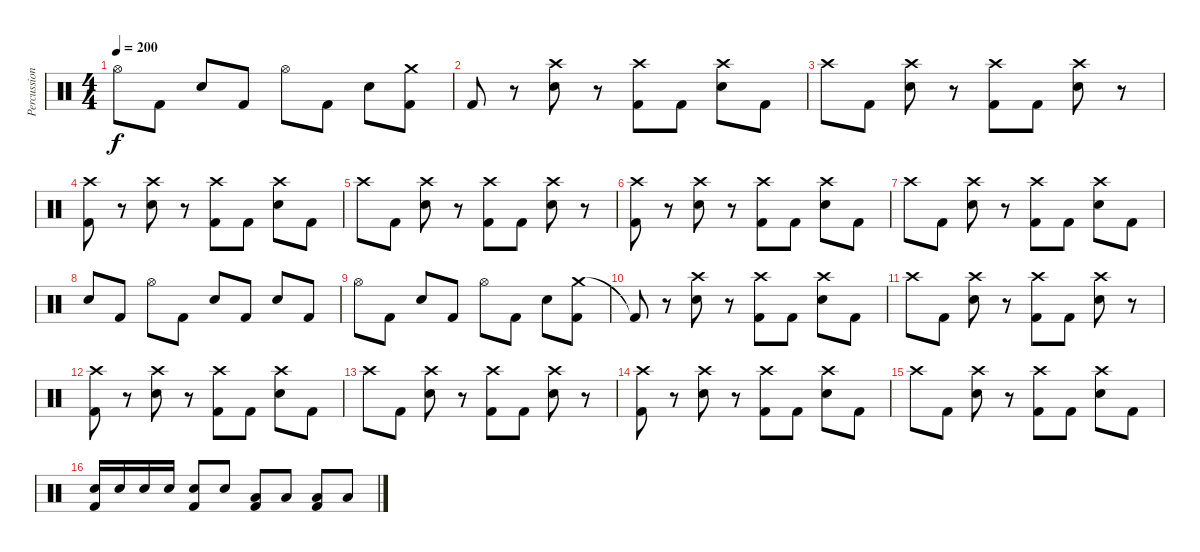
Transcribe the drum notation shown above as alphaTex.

\track ("Percussion" "Percussion") {instrument percussion}
\staff {score}
\articulation defaults
\ts (4 4)
\tempo 200
\clef neutral
\ks c "Hi-Hat (open)".8{dy f} "Kick (hit) 2".8 "Electric Snare (hit)".8 "Kick (hit) 2".8 "Hi-Hat (open)".8 "Kick (hit) 2".8 "Electric Snare (hit)".8
("Crash medium (hit)" "Kick (hit) 2").8 |
"Kick (hit) 2".8 r.8 ("Crash high (hit)" "Electric Snare (hit)").8 r.8 ("Crash high (hit)" "Kick (hit) 2").8 "Kick (hit) 2".8 ("Crash high (hit)" "Electric Snare (hit)").8 "Kick (hit) 2".8 |
"Crash high (hit)".8 "Kick (hit) 2".8 ("Crash high (hit)" "Electric Snare (hit)").8 r.8 ("Crash high (hit)" "Kick (hit) 2").8 "Kick (hit) 2".8 ("Crash high (hit)" "Electric Snare (hit)").8 r.8 |
("Crash high (hit)" "Kick (hit) 2").8 r.8 ("Crash high (hit)" "Electric Snare (hit)").8 r.8 ("Crash high (hit)" "Kick (hit) 2").8 "Kick (hit) 2".8 ("Crash high (hit)" "Electric Snare (hit)").8 "Kick (hit) 2".8 |
"Crash high (hit)".8 "Kick (hit) 2".8 ("Crash high (hit)" "Electric Snare (hit)").8 r.8 ("Crash high (hit)" "Kick (hit) 2").8 "Kick (hit) 2".8 ("Crash high (hit)" "Electric Snare (hit)").8 r.8 |
("Crash high (hit)" "Kick (hit) 2").8 r.8 ("Crash high (hit)" "Electric Snare (hit)").8 r.8 ("Crash high (hit)" "Kick (hit) 2").8 "Kick (hit) 2".8 ("Crash high (hit)" "Electric Snare (hit)").8 "Kick (hit) 2".8 |
"Crash high (hit)".8 "Kick (hit) 2".8 ("Crash high (hit)" "Electric Snare (hit)").8 r.8 ("Crash high (hit)" "Kick (hit) 2").8 "Kick (hit) 2".8 ("Crash high (hit)" "Electric Snare (hit)").8 "Kick (hit) 2".8 |
"Electric Snare (hit)".8 "Kick (hit) 2".8 "Hi-Hat (open)".8 "Kick (hit) 2".8 "Electric Snare (hit)".8 "Kick (hit) 2".8 "Electric Snare (hit)".8 "Kick (hit) 2".8 |
"Hi-Hat (open)".8 "Kick (hit) 2".8 "Electric Snare (hit)".8 "Kick (hit) 2".8 "Hi-Hat (open)".8 "Kick (hit) 2".8 "Electric Snare (hit)".8 ("Crash medium (hit)" "Kick (hit) 2").8 |
"Kick (hit) 2"{t}.8 r.8 ("Crash high (hit)" "Electric Snare (hit)").8 r.8 ("Crash high (hit)" "Kick (hit) 2").8 "Kick (hit) 2".8 ("Crash high (hit)" "Electric Snare (hit)").8 "Kick (hit) 2".8 |
"Crash high (hit)".8 "Kick (hit) 2".8 ("Crash high (hit)" "Electric Snare (hit)").8 r.8 ("Crash high (hit)" "Kick (hit) 2").8 "Kick (hit) 2".8 ("Crash high (hit)" "Electric Snare (hit)").8 r.8 |
("Crash high (hit)" "Kick (hit) 2").8 r.8 ("Crash high (hit)" "Electric Snare (hit)").8 r.8 ("Crash high (hit)" "Kick (hit) 2").8 "Kick (hit) 2".8 ("Crash high (hit)" "Electric Snare (hit)").8 "Kick (hit) 2".8 |
"Crash high (hit)".8 "Kick (hit) 2".8 ("Crash high (hit)" "Electric Snare (hit)").8 r.8 ("Crash high (hit)" "Kick (hit) 2").8 "Kick (hit) 2".8 ("Crash high (hit)" "Electric Snare (hit)").8 r.8 |
("Crash high (hit)" "Kick (hit) 2").8 r.8 ("Crash high (hit)" "Electric Snare (hit)").8 r.8 ("Crash high (hit)" "Kick (hit) 2").8 "Kick (hit) 2".8 ("Crash high (hit)" "Electric Snare (hit)").8 "Kick (hit) 2".8 |
"Crash high (hit)".8 "Kick (hit) 2".8 ("Crash high (hit)" "Electric Snare (hit)").8 r.8 ("Crash high (hit)" "Kick (hit) 2").8 "Kick (hit) 2".8 ("Crash high (hit)" "Electric Snare (hit)").8 "Kick (hit) 2".8 |
("Electric Snare (hit)" "Kick (hit) 2").16 "Electric Snare (hit)".16 "Electric Snare (hit)".16 "Electric Snare (hit)".16 ("Electric Snare (hit)" "Kick (hit) 2").8 "Electric Snare (hit)".8 ("Low Tom (hit)" "Kick (hit) 2").8 "Low Tom (hit)".8 ("Low Floor Tom (hit)" "Kick (hit) 2").8 "Low Floor Tom (hit)".8
